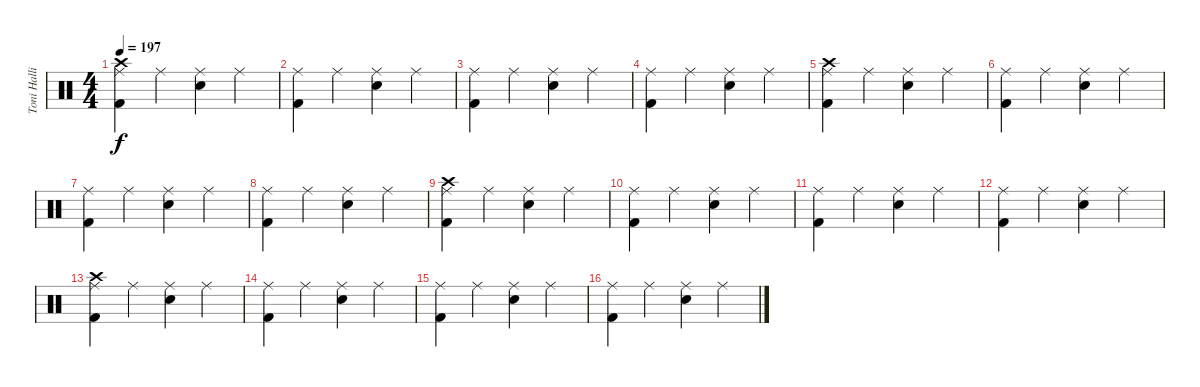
\track ("Toni Hallio" "Toni Halli") {instrument percussion}
\staff {score}
\articulation defaults
\ts (4 4)
\tempo 197
\clef neutral
\ks c
("Ride (middle)" "Crash high (hit)" "Kick (hit) 2").4{dy f} "Ride (middle)".4 ("Ride (middle)" "Snare (hit) 2").4 "Ride (middle)".4 |
("Ride (middle)" "Kick (hit) 2").4 "Ride (middle)".4 ("Ride (middle)" "Snare (hit) 2").4 "Ride (middle)".4 |
("Ride (middle)" "Kick (hit) 2").4 "Ride (middle)".4 ("Ride (middle)" "Snare (hit) 2").4 "Ride (middle)".4 |
("Ride (middle)" "Kick (hit) 2").4 "Ride (middle)".4 ("Ride (middle)" "Snare (hit) 2").4 "Ride (middle)".4 |
("Ride (middle)" "Crash high (hit)" "Kick (hit) 2").4 "Ride (middle)".4 ("Ride (middle)" "Snare (hit) 2").4 "Ride (middle)".4 |
("Ride (middle)" "Kick (hit) 2").4 "Ride (middle)".4 ("Ride (middle)" "Snare (hit) 2").4 "Ride (middle)".4 |
("Ride (middle)" "Kick (hit) 2").4 "Ride (middle)".4 ("Ride (middle)" "Snare (hit) 2").4 "Ride (middle)".4 |
("Ride (middle)" "Kick (hit) 2").4 "Ride (middle)".4 ("Ride (middle)" "Snare (hit) 2").4 "Ride (middle)".4 |
("Ride (middle)" "Crash high (hit)" "Kick (hit) 2").4 "Ride (middle)".4 ("Ride (middle)" "Snare (hit) 2").4 "Ride (middle)".4 |
("Ride (middle)" "Kick (hit) 2").4 "Ride (middle)".4 ("Ride (middle)" "Snare (hit) 2").4 "Ride (middle)".4 |
("Ride (middle)" "Kick (hit) 2").4 "Ride (middle)".4 ("Ride (middle)" "Snare (hit) 2").4 "Ride (middle)".4 |
("Ride (middle)" "Kick (hit) 2").4 "Ride (middle)".4 ("Ride (middle)" "Snare (hit) 2").4 "Ride (middle)".4 |
("Ride (middle)" "Crash high (hit)" "Kick (hit) 2").4 "Ride (middle)".4 ("Ride (middle)" "Snare (hit) 2").4 "Ride (middle)".4 |
("Ride (middle)" "Kick (hit) 2").4 "Ride (middle)".4 ("Ride (middle)" "Snare (hit) 2").4 "Ride (middle)".4 |
("Ride (middle)" "Kick (hit) 2").4 "Ride (middle)".4 ("Ride (middle)" "Snare (hit) 2").4 "Ride (middle)".4 |
("Ride (middle)" "Kick (hit) 2").4 "Ride (middle)".4 ("Ride (middle)" "Snare (hit) 2").4 "Ride (middle)".4
